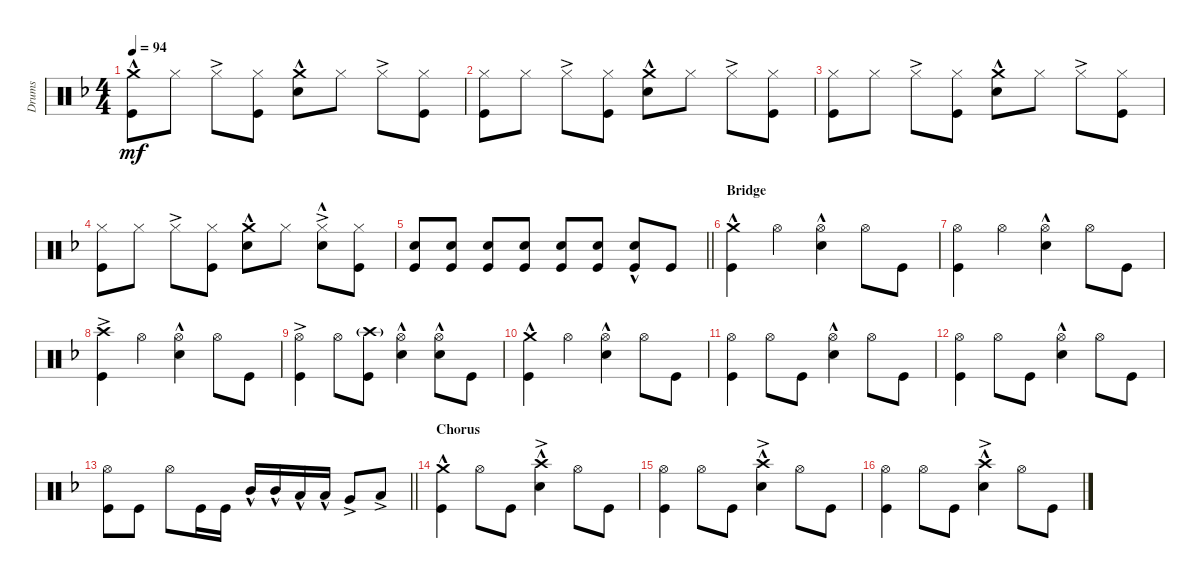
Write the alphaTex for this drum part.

\track ("Drums" "Drums") {instrument percussion}
\staff {score}
\articulation defaults
\ts (4 4)
\tempo 94
\clef neutral
\ks dminor
("Kick (hit)" "Crash medium (hit)"{hac}).8{dy mf} "Hi-Hat (closed)".8 "Hi-Hat (closed)"{ac}.8 ("Hi-Hat (closed)" "Kick (hit)").8 ("Crash medium (hit)" "Snare (hit) 2"{hac}).8 "Hi-Hat (closed)".8 "Hi-Hat (closed)"{ac}.8 ("Hi-Hat (closed)" "Kick (hit)").8 |
("Kick (hit)" "Hi-Hat (closed)").8 "Hi-Hat (closed)".8 "Hi-Hat (closed)"{ac}.8 ("Hi-Hat (closed)" "Kick (hit)").8 ("Crash medium (hit)" "Snare (hit) 2"{hac}).8 "Hi-Hat (closed)".8 "Hi-Hat (closed)"{ac}.8 ("Hi-Hat (closed)" "Kick (hit)").8 |
("Kick (hit)" "Hi-Hat (closed)").8 "Hi-Hat (closed)".8 "Hi-Hat (closed)"{ac}.8 ("Hi-Hat (closed)" "Kick (hit)").8 ("Crash medium (hit)" "Snare (hit) 2"{hac}).8 "Hi-Hat (closed)".8 "Hi-Hat (closed)"{ac}.8 ("Hi-Hat (closed)" "Kick (hit)").8 |
("Kick (hit)" "Hi-Hat (closed)").8 "Hi-Hat (closed)".8 "Hi-Hat (closed)"{ac}.8 ("Hi-Hat (closed)" "Kick (hit)").8 ("Crash medium (hit)" "Snare (hit) 2"{hac}).8 "Hi-Hat (closed)".8 ("Hi-Hat (closed)"{ac} "Snare (hit) 2"{hac}).8 ("Hi-Hat (closed)" "Kick (hit)").8 |
\barLineRight lightlight
("Kick (hit)" "Snare (hit) 2").8 ("Kick (hit)" "Snare (hit) 2").8 ("Kick (hit)" "Snare (hit) 2").8 ("Kick (hit)" "Snare (hit) 2").8 ("Kick (hit)" "Snare (hit) 2").8 ("Kick (hit)" "Snare (hit) 2").8 ("Kick (hit)" "Snare (hit) 2"{hac}).8 "Kick (hit)".8 |
\section ("" "Bridge")
("Kick (hit)" "Crash medium (hit)"{hac}).4 "Hi-Hat (open)".4 ("Hi-Hat (open)"{hac} "Snare (hit) 2"{hac}).4 "Hi-Hat (open)".8 "Kick (hit)".8 |
("Kick (hit)" "Hi-Hat (open)").4 "Hi-Hat (open)".4 ("Hi-Hat (open)"{hac} "Snare (hit) 2"{hac}).4 "Hi-Hat (open)".8 "Kick (hit)".8 |
("Kick (hit)" "Crash high (hit)"{ac}).4 "Hi-Hat (open)".4 ("Hi-Hat (open)"{hac} "Snare (hit) 2"{hac}).4 "Hi-Hat (open)".8 "Kick (hit)".8 |
("Kick (hit)" "Hi-Hat (open)"{ac}).4 "Hi-Hat (open)".8 ("Kick (hit)" "Crash high (hit)"{g}).8 ("Hi-Hat (open)"{hac} "Snare (hit) 2"{hac}).4 ("Hi-Hat (open)" "Snare (hit) 2"{hac}).8 "Kick (hit)".8 |
("Kick (hit)" "Crash medium (hit)"{hac}).4 "Hi-Hat (open)".4 ("Hi-Hat (open)"{hac} "Snare (hit) 2"{hac}).4 "Hi-Hat (open)".8 "Kick (hit)".8 |
("Kick (hit)" "Hi-Hat (open)").4 "Hi-Hat (open)".8 "Kick (hit)".8 ("Hi-Hat (open)"{hac} "Snare (hit) 2"{hac}).4 "Hi-Hat (open)".8 "Kick (hit)".8 |
("Kick (hit)" "Hi-Hat (open)").4 "Hi-Hat (open)".8 "Kick (hit)".8 ("Hi-Hat (open)"{hac} "Snare (hit) 2"{hac}).4 "Hi-Hat (open)".8 "Kick (hit)".8 |
\barLineRight lightlight
("Kick (hit)" "Hi-Hat (open)").8 "Kick (hit)".8 "Hi-Hat (open)".8 "Kick (hit)".16 "Kick (hit)".16 "Mid Tom (hit)"{hac}.16 "Mid Tom (hit)"{hac}.16 "Low Tom (hit)"{hac}.16 "Low Tom (hit)"{hac}.16 "Very Low Tom (hit)"{ac}.8 "Low Floor Tom (hit)"{ac}.8 |
\section ("" "Chorus")
("Crash medium (hit)"{hac} "Kick (hit)").4 "Hi-Hat (open)".8 "Kick (hit)".8 ("Snare (hit) 2"{hac} "Crash high (hit)"{ac}).4 "Hi-Hat (open)".8 "Kick (hit)".8 |
("Kick (hit)" "Hi-Hat (open)").4 "Hi-Hat (open)".8 "Kick (hit)".8 ("Snare (hit) 2"{hac} "Crash high (hit)"{ac}).4 "Hi-Hat (open)".8 "Kick (hit)".8 |
("Kick (hit)" "Hi-Hat (open)").4 "Hi-Hat (open)".8 "Kick (hit)".8 ("Snare (hit) 2"{hac} "Crash high (hit)"{ac}).4 "Hi-Hat (open)".8 "Kick (hit)".8
